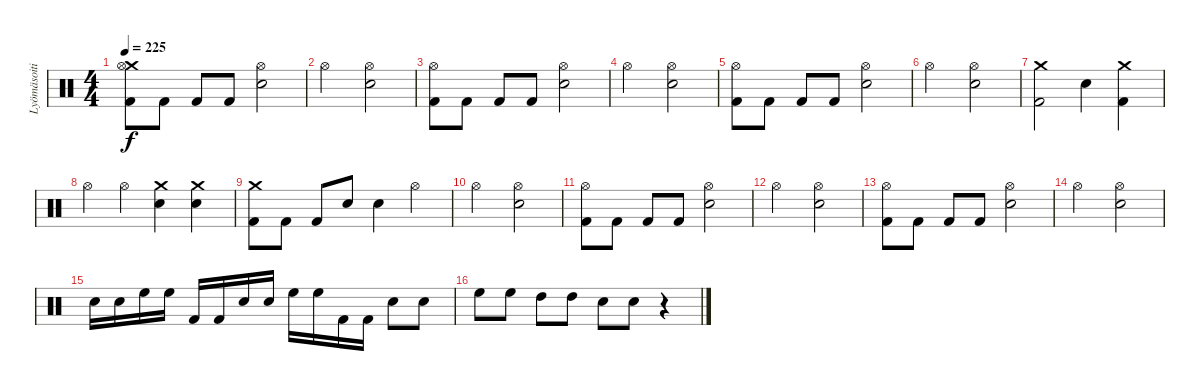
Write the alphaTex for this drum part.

\track ("Lyömäsoitin" "Lyömäsoiti") {instrument percussion}
\staff {score}
\articulation defaults
\ts (4 4)
\tempo 225
\clef neutral
\ks c
("Crash medium (hit)" "Hi-Hat (open)" "Kick (hit) 2").8{dy f} "Kick (hit) 2".8 "Kick (hit) 2".8 "Kick (hit) 2".8 ("Hi-Hat (open)" "Snare (hit) 2").2 |
"Hi-Hat (open)".2 ("Hi-Hat (open)" "Snare (hit) 2").2 |
("Hi-Hat (open)" "Kick (hit) 2").8 "Kick (hit) 2".8 "Kick (hit) 2".8 "Kick (hit) 2".8 ("Hi-Hat (open)" "Snare (hit) 2").2 |
"Hi-Hat (open)".2 ("Hi-Hat (open)" "Snare (hit) 2").2 |
("Hi-Hat (open)" "Kick (hit) 2").8 "Kick (hit) 2".8 "Kick (hit) 2".8 "Kick (hit) 2".8 ("Hi-Hat (open)" "Snare (hit) 2").2 |
"Hi-Hat (open)".2 ("Hi-Hat (open)" "Snare (hit) 2").2 |
("Crash medium (hit)" "Kick (hit) 2").2 "Snare (hit) 2".4 ("Crash medium (hit)" "Kick (hit) 2").4 |
"Hi-Hat (open)".4 "Hi-Hat (open)".4 ("Crash medium (hit)" "Snare (hit) 2").4 ("Crash medium (hit)" "Snare (hit) 2").4 |
("Crash medium (hit)" "Kick (hit) 2").8 "Kick (hit) 2".8 "Kick (hit) 2".8 "Snare (hit) 2".8 "Snare (hit) 2".4 "Hi-Hat (open)".4 |
"Hi-Hat (open)".2 ("Hi-Hat (open)" "Snare (hit) 2").2 |
("Hi-Hat (open)" "Kick (hit) 2").8 "Kick (hit) 2".8 "Kick (hit) 2".8 "Kick (hit) 2".8 ("Hi-Hat (open)" "Snare (hit) 2").2 |
"Hi-Hat (open)".2 ("Hi-Hat (open)" "Snare (hit) 2").2 |
("Hi-Hat (open)" "Kick (hit) 2").8 "Kick (hit) 2".8 "Kick (hit) 2".8 "Kick (hit) 2".8 ("Hi-Hat (open)" "Snare (hit) 2").2 |
"Hi-Hat (open)".2 ("Hi-Hat (open)" "Snare (hit) 2").2 |
"Snare (hit) 2".16 "Snare (hit) 2".16 "High Floor Tom (hit)".16 "High Floor Tom (hit)".16 "Kick (hit) 2".16 "Kick (hit) 2".16 "Snare (hit) 2".16 "Snare (hit) 2".16 "High Floor Tom (hit)".16 "High Floor Tom (hit)".16 "Kick (hit) 2".16 "Kick (hit) 2".16 "Snare (hit) 2".8 "Snare (hit) 2".8 |
"High Floor Tom (hit)".8 "High Floor Tom (hit)".8 "High Tom (hit)".8 "High Tom (hit)".8 "Snare (hit) 2".8 "Snare (hit) 2".8 r.4
